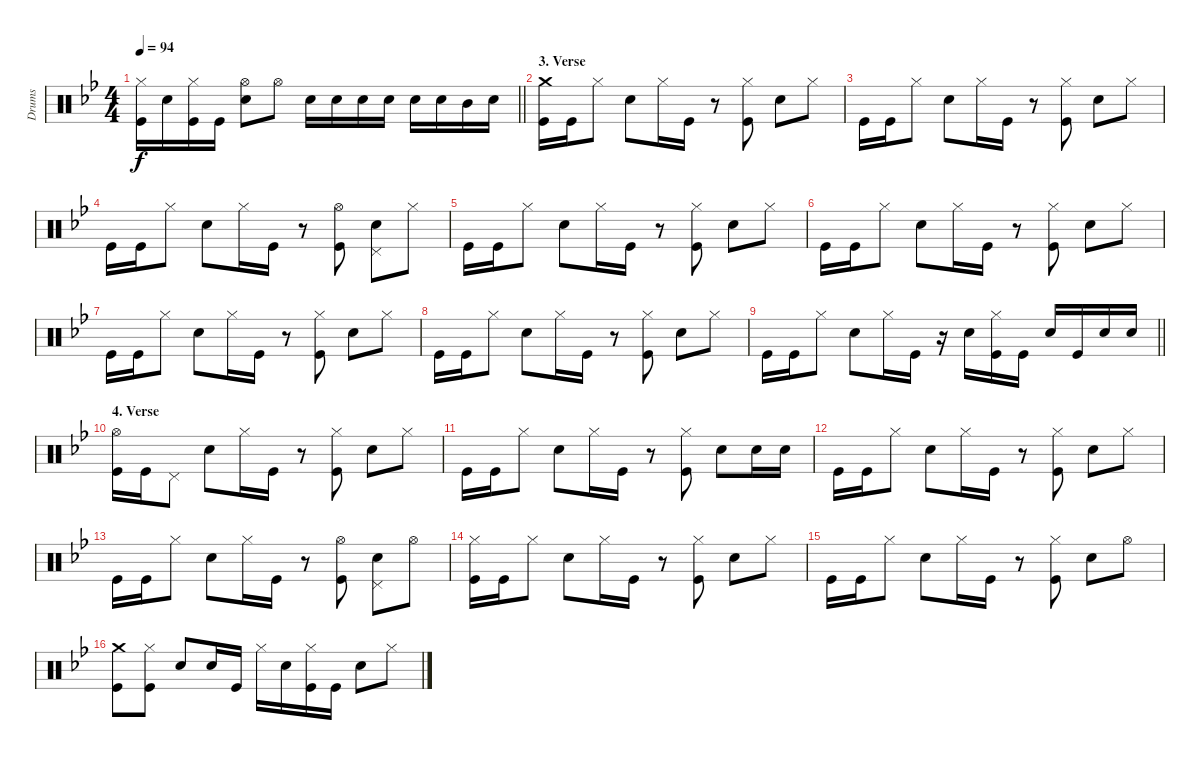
\track ("Drums" "Drums") {instrument percussion}
\staff {score}
\articulation defaults
\ts (4 4)
\tempo 94
\clef neutral
\barLineRight lightlight
\ks gminor
("Hi-Hat (closed)" "Kick (hit)").16{dy f} "Electric Snare (hit)".16 ("Hi-Hat (closed)" "Kick (hit)").16 "Kick (hit)".16 ("Hi-Hat (open)" "Electric Snare (hit)").8 "Hi-Hat (open)".8 "Electric Snare (hit)".16 "Electric Snare (hit)".16 "Electric Snare (hit)".16 "Electric Snare (hit)".16 "Electric Snare (hit)".16 "Electric Snare (hit)".16 "Mid Tom (hit)".16 "Electric Snare (hit)".16 |
\section ("" "3. Verse")
("Crash medium (hit)" "Kick (hit)").16 "Kick (hit)".16 "Hi-Hat (closed)".8 "Electric Snare (hit)".8 "Hi-Hat (closed)".16 "Kick (hit)".16 r.8 ("Hi-Hat (closed)" "Kick (hit)").8 "Electric Snare (hit)".8 "Hi-Hat (closed)".8 |
"Kick (hit)".16 "Kick (hit)".16 "Hi-Hat (closed)".8 "Electric Snare (hit)".8 "Hi-Hat (closed)".16 "Kick (hit)".16 r.8 ("Hi-Hat (closed)" "Kick (hit)").8 "Electric Snare (hit)".8 "Hi-Hat (closed)".8 |
"Kick (hit)".16 "Kick (hit)".16 "Hi-Hat (closed)".8 "Electric Snare (hit)".8 "Hi-Hat (closed)".16 "Kick (hit)".16 r.8 ("Hi-Hat (open)" "Kick (hit)").8 ("Pedal Hi-Hat (hit)" "Electric Snare (hit)").8 "Hi-Hat (closed)".8 |
"Kick (hit)".16 "Kick (hit)".16 "Hi-Hat (closed)".8 "Electric Snare (hit)".8 "Hi-Hat (closed)".16 "Kick (hit)".16 r.8 ("Hi-Hat (closed)" "Kick (hit)").8 "Electric Snare (hit)".8 "Hi-Hat (closed)".8 |
"Kick (hit)".16 "Kick (hit)".16 "Hi-Hat (closed)".8 "Electric Snare (hit)".8 "Hi-Hat (closed)".16 "Kick (hit)".16 r.8 ("Hi-Hat (closed)" "Kick (hit)").8 "Electric Snare (hit)".8 "Hi-Hat (closed)".8 |
"Kick (hit)".16 "Kick (hit)".16 "Hi-Hat (closed)".8 "Electric Snare (hit)".8 "Hi-Hat (closed)".16 "Kick (hit)".16 r.8 ("Hi-Hat (closed)" "Kick (hit)").8 "Electric Snare (hit)".8 "Hi-Hat (closed)".8 |
"Kick (hit)".16 "Kick (hit)".16 "Hi-Hat (closed)".8 "Electric Snare (hit)".8 "Hi-Hat (closed)".16 "Kick (hit)".16 r.8 ("Hi-Hat (closed)" "Kick (hit)").8 "Electric Snare (hit)".8 "Hi-Hat (closed)".8 |
\barLineRight lightlight "Kick (hit)".16 "Kick (hit)".16 "Hi-Hat (closed)".8 "Electric Snare (hit)".8 "Hi-Hat (closed)".16 "Kick (hit)".16
r.16 "Electric Snare (hit)".16 ("Hi-Hat (closed)" "Kick (hit)").16 "Kick (hit)".16 "Electric Snare (hit)".16 "Kick (hit)".16 "Electric Snare (hit)".16 "Electric Snare (hit)".16 |
\section ("" "4. Verse")
("Hi-Hat (open)" "Kick (hit)").16 "Kick (hit)".16 "Pedal Hi-Hat (hit)".8 "Electric Snare (hit)".8 "Hi-Hat (closed)".16 "Kick (hit)".16 r.8 ("Hi-Hat (closed)" "Kick (hit)").8 "Electric Snare (hit)".8 "Hi-Hat (closed)".8 |
"Kick (hit)".16 "Kick (hit)".16 "Hi-Hat (closed)".8 "Electric Snare (hit)".8 "Hi-Hat (closed)".16 "Kick (hit)".16 r.8 ("Hi-Hat (closed)" "Kick (hit)").8 "Electric Snare (hit)".8 "Electric Snare (hit)".16 "Electric Snare (hit)".16 |
"Kick (hit)".16 "Kick (hit)".16 "Hi-Hat (closed)".8 "Electric Snare (hit)".8 "Hi-Hat (closed)".16 "Kick (hit)".16 r.8 ("Hi-Hat (closed)" "Kick (hit)").8 "Electric Snare (hit)".8 "Hi-Hat (closed)".8 |
"Kick (hit)".16 "Kick (hit)".16 "Hi-Hat (closed)".8 "Electric Snare (hit)".8 "Hi-Hat (closed)".16 "Kick (hit)".16 r.8 ("Hi-Hat (open)" "Kick (hit)").8 ("Pedal Hi-Hat (hit)" "Electric Snare (hit)").8 "Hi-Hat (open)".8 |
("Hi-Hat (closed)" "Kick (hit)").16 "Kick (hit)".16 "Hi-Hat (closed)".8 "Electric Snare (hit)".8 "Hi-Hat (closed)".16 "Kick (hit)".16 r.8 ("Hi-Hat (closed)" "Kick (hit)").8 "Electric Snare (hit)".8 "Hi-Hat (closed)".8 |
"Kick (hit)".16 "Kick (hit)".16 "Hi-Hat (closed)".8 "Electric Snare (hit)".8 "Hi-Hat (closed)".16 "Kick (hit)".16 r.8 ("Hi-Hat (closed)" "Kick (hit)").8 "Electric Snare (hit)".8 "Hi-Hat (open)".8 |
("Crash medium (hit)" "Kick (hit)").8 ("Hi-Hat (closed)" "Kick (hit)").8 "Electric Snare (hit)".8 "Electric Snare (hit)".16 "Kick (hit)".16 "Hi-Hat (closed)".16 "Electric Snare (hit)".16 ("Hi-Hat (closed)" "Kick (hit)").16 "Kick (hit)".16 "Electric Snare (hit)".8 "Hi-Hat (closed)".8
